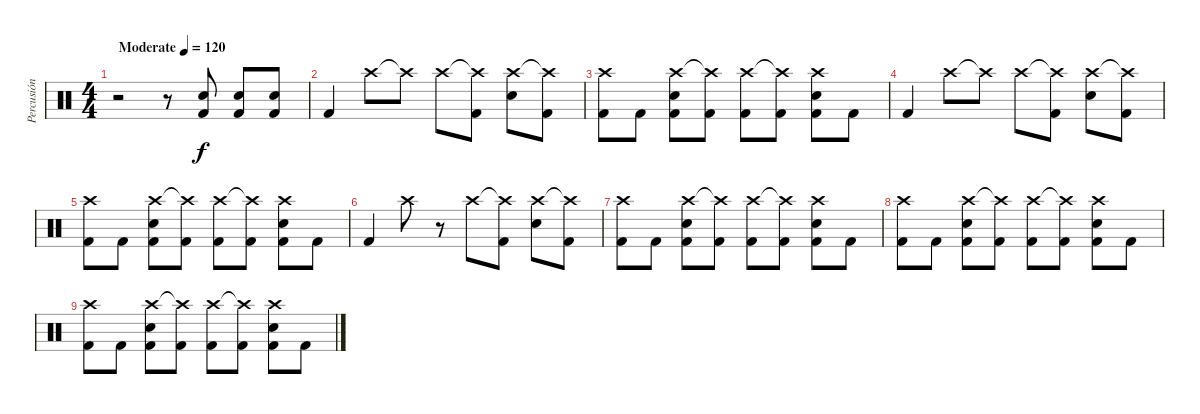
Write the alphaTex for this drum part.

\track ("Percusión" "Percusión") {instrument percussion}
\staff {score}
\articulation defaults
\ts (4 4)
\tempo (120 "Moderate")
\clef neutral
\ks c
r.2{dy f} r.8 ("Electric Snare (hit)" "Kick (hit) 2").8 ("Electric Snare (hit)" "Kick (hit) 2").8 ("Electric Snare (hit)" "Kick (hit) 2").8 |
"Kick (hit) 2".4 "Crash high (hit)".8 "Crash high (hit)"{t}.8 "Crash high (hit)".8 ("Crash high (hit)"{t} "Kick (hit) 2").8 ("Crash high (hit)" "Electric Snare (hit)").8 ("Crash high (hit)"{t} "Kick (hit) 2").8 |
("Crash high (hit)" "Kick (hit) 2").8 "Kick (hit) 2".8 ("Crash high (hit)" "Electric Snare (hit)" "Kick (hit) 2").8 ("Crash high (hit)"{t} "Kick (hit) 2").8 ("Crash high (hit)" "Kick (hit) 2").8 ("Crash high (hit)"{t} "Kick (hit) 2").8 ("Crash high (hit)" "Electric Snare (hit)" "Kick (hit) 2").8 "Kick (hit) 2".8 |
"Kick (hit) 2".4 "Crash high (hit)".8 "Crash high (hit)"{t}.8 "Crash high (hit)".8 ("Crash high (hit)"{t} "Kick (hit) 2").8 ("Crash high (hit)" "Electric Snare (hit)").8 ("Crash high (hit)"{t} "Kick (hit) 2").8 |
("Crash high (hit)" "Kick (hit) 2").8 "Kick (hit) 2".8 ("Crash high (hit)" "Electric Snare (hit)" "Kick (hit) 2").8 ("Crash high (hit)"{t} "Kick (hit) 2").8 ("Crash high (hit)" "Kick (hit) 2").8 ("Crash high (hit)"{t} "Kick (hit) 2").8 ("Crash high (hit)" "Electric Snare (hit)" "Kick (hit) 2").8 "Kick (hit) 2".8 |
"Kick (hit) 2".4 "Crash high (hit)".8 r.8 "Crash high (hit)".8 ("Crash high (hit)"{t} "Kick (hit) 2").8 ("Crash high (hit)" "Electric Snare (hit)").8 ("Crash high (hit)"{t} "Kick (hit) 2").8 |
("Crash high (hit)" "Kick (hit) 2").8 "Kick (hit) 2".8 ("Crash high (hit)" "Electric Snare (hit)" "Kick (hit) 2").8 ("Crash high (hit)"{t} "Kick (hit) 2").8 ("Crash high (hit)" "Kick (hit) 2").8 ("Crash high (hit)"{t} "Kick (hit) 2").8 ("Crash high (hit)" "Electric Snare (hit)" "Kick (hit) 2").8 "Kick (hit) 2".8 |
("Crash high (hit)" "Kick (hit) 2").8 "Kick (hit) 2".8 ("Crash high (hit)" "Electric Snare (hit)" "Kick (hit) 2").8 ("Crash high (hit)"{t} "Kick (hit) 2").8 ("Crash high (hit)" "Kick (hit) 2").8 ("Crash high (hit)"{t} "Kick (hit) 2").8 ("Crash high (hit)" "Electric Snare (hit)" "Kick (hit) 2").8 "Kick (hit) 2".8 |
("Crash high (hit)" "Kick (hit) 2").8 "Kick (hit) 2".8 ("Crash high (hit)" "Electric Snare (hit)" "Kick (hit) 2").8 ("Crash high (hit)"{t} "Kick (hit) 2").8 ("Crash high (hit)" "Kick (hit) 2").8 ("Crash high (hit)"{t} "Kick (hit) 2").8 ("Crash high (hit)" "Electric Snare (hit)" "Kick (hit) 2").8 "Kick (hit) 2".8
